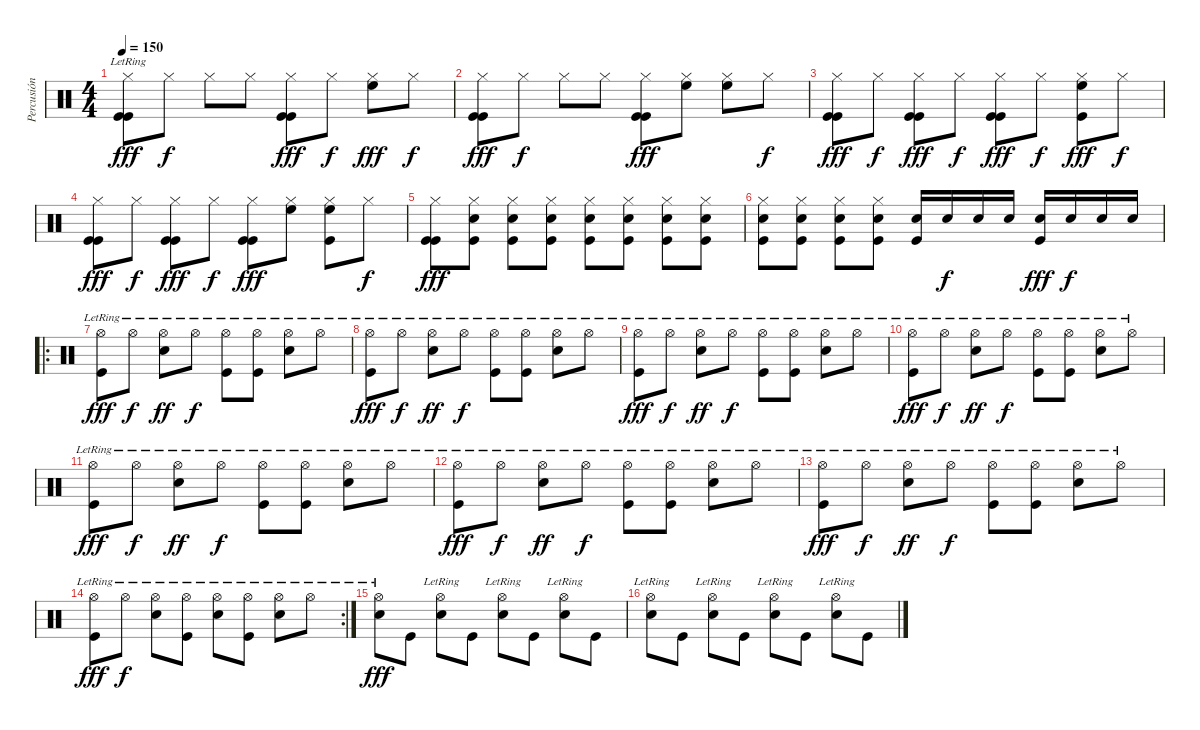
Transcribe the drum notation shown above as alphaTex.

\track ("Percusión" "Percusión") {instrument percussion}
\staff {score}
\articulation defaults
\ts (4 4)
\tempo 150
\clef neutral
\ks c
("Hi-Hat (closed)" "Kick (hit)"{lr} "Kick (hit)").8{dy fff} "Hi-Hat (closed)".8{dy f} "Hi-Hat (closed)".8 "Hi-Hat (closed)".8 ("Hi-Hat (closed)" "Kick (hit)" "Kick (hit)").8{dy fff} "Hi-Hat (closed)".8{dy f} ("Hi-Hat (closed)" "High Floor Tom (hit)").8{dy fff} "Hi-Hat (closed)".8{dy f} |
("Hi-Hat (closed)" "Kick (hit)" "Kick (hit)").8{dy fff} "Hi-Hat (closed)".8{dy f} "Hi-Hat (closed)".8 "Hi-Hat (closed)".8 ("Hi-Hat (closed)" "Kick (hit)" "Kick (hit)").8{dy fff} ("Hi-Hat (closed)" "High Floor Tom (hit)").8 ("Hi-Hat (closed)" "High Floor Tom (hit)").8 "Hi-Hat (closed)".8{dy f} |
("Hi-Hat (closed)" "Kick (hit)" "Kick (hit)").8{dy fff volume 12} "Hi-Hat (closed)".8{dy f} ("Hi-Hat (closed)" "Kick (hit)" "Kick (hit)").8{dy fff} "Hi-Hat (closed)".8{dy f} ("Hi-Hat (closed)" "Kick (hit)" "Kick (hit)").8{dy fff} "Hi-Hat (closed)".8{dy f} ("Hi-Hat (closed)" "High Floor Tom (hit)" "Kick (hit)").8{dy fff} "Hi-Hat (closed)".8{dy f} |
("Hi-Hat (closed)" "Kick (hit)" "Kick (hit)").8{dy fff} "Hi-Hat (closed)".8{dy f} ("Hi-Hat (closed)" "Kick (hit)" "Kick (hit)").8{dy fff} "Hi-Hat (closed)".8{dy f} ("Hi-Hat (closed)" "Kick (hit)" "Kick (hit)").8{dy fff} ("Hi-Hat (closed)" "High Floor Tom (hit)").8 ("Hi-Hat (closed)" "High Floor Tom (hit)" "Kick (hit)").8 "Hi-Hat (closed)".8{dy f} |
("Hi-Hat (closed)" "Kick (hit)" "Kick (hit)").8{dy fff volume 16} ("Hi-Hat (closed)" "Snare (hit) 2" "Kick (hit)").8 ("Hi-Hat (closed)" "Snare (hit) 2" "Kick (hit)").8 ("Hi-Hat (closed)" "Snare (hit) 2" "Kick (hit)").8 ("Hi-Hat (closed)" "Snare (hit) 2" "Kick (hit)").8 ("Hi-Hat (closed)" "Snare (hit) 2" "Kick (hit)").8 ("Hi-Hat (closed)" "Snare (hit) 2" "Kick (hit)").8 ("Hi-Hat (closed)" "Snare (hit) 2" "Kick (hit)").8 |
("Hi-Hat (closed)" "Snare (hit) 2" "Kick (hit)").8 ("Hi-Hat (closed)" "Snare (hit) 2" "Kick (hit)").8 ("Hi-Hat (closed)" "Snare (hit) 2" "Kick (hit)").8 ("Hi-Hat (closed)" "Snare (hit) 2" "Kick (hit)").8 ("Snare (hit) 2" "Kick (hit)").16 "Snare (hit) 2".16{dy f} "Snare (hit) 2".16 "Snare (hit) 2".16 ("Snare (hit) 2" "Kick (hit)").16{dy fff} "Snare (hit) 2".16{dy f} "Snare (hit) 2".16 "Snare (hit) 2".16 |
\ro
("Kick (hit)" "Hi-Hat (open)"{lr}).8{dy fff} "Hi-Hat (open)"{lr}.8{dy f} ("Snare (hit) 2" "Hi-Hat (open)"{lr}).8{dy ff} "Hi-Hat (open)"{lr}.8{dy f} ("Kick (hit)" "Hi-Hat (open)"{lr}).8 ("Kick (hit)" "Hi-Hat (open)"{lr}).8 ("Snare (hit) 2" "Hi-Hat (open)"{lr}).8 "Hi-Hat (open)"{lr}.8 |
("Kick (hit)" "Hi-Hat (open)"{lr}).8{dy fff} "Hi-Hat (open)"{lr}.8{dy f} ("Snare (hit) 2" "Hi-Hat (open)"{lr}).8{dy ff} "Hi-Hat (open)"{lr}.8{dy f} ("Kick (hit)" "Hi-Hat (open)"{lr}).8 ("Kick (hit)" "Hi-Hat (open)"{lr}).8 ("Snare (hit) 2" "Hi-Hat (open)"{lr}).8 "Hi-Hat (open)"{lr}.8 |
("Kick (hit)" "Hi-Hat (open)"{lr}).8{dy fff} "Hi-Hat (open)"{lr}.8{dy f} ("Snare (hit) 2" "Hi-Hat (open)"{lr}).8{dy ff} "Hi-Hat (open)"{lr}.8{dy f} ("Kick (hit)" "Hi-Hat (open)"{lr}).8 ("Kick (hit)" "Hi-Hat (open)"{lr}).8 ("Snare (hit) 2" "Hi-Hat (open)"{lr}).8 "Hi-Hat (open)"{lr}.8 |
("Kick (hit)" "Hi-Hat (open)"{lr}).8{dy fff} "Hi-Hat (open)"{lr}.8{dy f} ("Snare (hit) 2" "Hi-Hat (open)"{lr}).8{dy ff} "Hi-Hat (open)"{lr}.8{dy f} ("Kick (hit)" "Hi-Hat (open)"{lr}).8 ("Kick (hit)" "Hi-Hat (open)"{lr}).8 ("Snare (hit) 2" "Hi-Hat (open)"{lr}).8 "Hi-Hat (open)"{lr}.8 |
("Kick (hit)" "Hi-Hat (open)"{lr}).8{dy fff} "Hi-Hat (open)"{lr}.8{dy f} ("Snare (hit) 2" "Hi-Hat (open)"{lr}).8{dy ff} "Hi-Hat (open)"{lr}.8{dy f} ("Kick (hit)" "Hi-Hat (open)"{lr}).8 ("Kick (hit)" "Hi-Hat (open)"{lr}).8 ("Snare (hit) 2" "Hi-Hat (open)"{lr}).8 "Hi-Hat (open)"{lr}.8 |
("Kick (hit)" "Hi-Hat (open)"{lr}).8{dy fff} "Hi-Hat (open)"{lr}.8{dy f} ("Snare (hit) 2" "Hi-Hat (open)"{lr}).8{dy ff} "Hi-Hat (open)"{lr}.8{dy f} ("Kick (hit)" "Hi-Hat (open)"{lr}).8 ("Kick (hit)" "Hi-Hat (open)"{lr}).8 ("Snare (hit) 2" "Hi-Hat (open)"{lr}).8 "Hi-Hat (open)"{lr}.8 |
("Kick (hit)" "Hi-Hat (open)"{lr}).8{dy fff} "Hi-Hat (open)"{lr}.8{dy f} ("Snare (hit) 2" "Hi-Hat (open)"{lr}).8{dy ff} "Hi-Hat (open)"{lr}.8{dy f} ("Kick (hit)" "Hi-Hat (open)"{lr}).8 ("Kick (hit)" "Hi-Hat (open)"{lr}).8 ("Snare (hit) 2" "Hi-Hat (open)"{lr}).8 "Hi-Hat (open)"{lr}.8 |
\rc 2
("Kick (hit)" "Hi-Hat (open)"{lr}).8{dy fff} "Hi-Hat (open)"{lr}.8{dy f} ("Snare (hit) 2" "Hi-Hat (open)"{lr}).8 ("Kick (hit)" "Hi-Hat (open)"{lr}).8 ("Snare (hit) 2" "Hi-Hat (open)"{lr}).8 ("Kick (hit)" "Hi-Hat (open)"{lr}).8 ("Snare (hit) 2" "Hi-Hat (open)"{lr}).8 "Hi-Hat (open)"{lr}.8 |
("Snare (hit) 2" "Hi-Hat (open)"{lr}).8{dy fff volume 13} "Kick (hit)".8 ("Snare (hit) 2" "Hi-Hat (open)"{lr}).8 "Kick (hit)".8 ("Snare (hit) 2" "Hi-Hat (open)"{lr}).8 "Kick (hit)".8 ("Snare (hit) 2" "Hi-Hat (open)"{lr}).8 "Kick (hit)".8 |
("Snare (hit) 2" "Hi-Hat (open)"{lr}).8 "Kick (hit)".8 ("Snare (hit) 2" "Hi-Hat (open)"{lr}).8 "Kick (hit)".8 ("Snare (hit) 2" "Hi-Hat (open)"{lr}).8 "Kick (hit)".8 ("Snare (hit) 2" "Hi-Hat (open)"{lr}).8 "Kick (hit)".8
